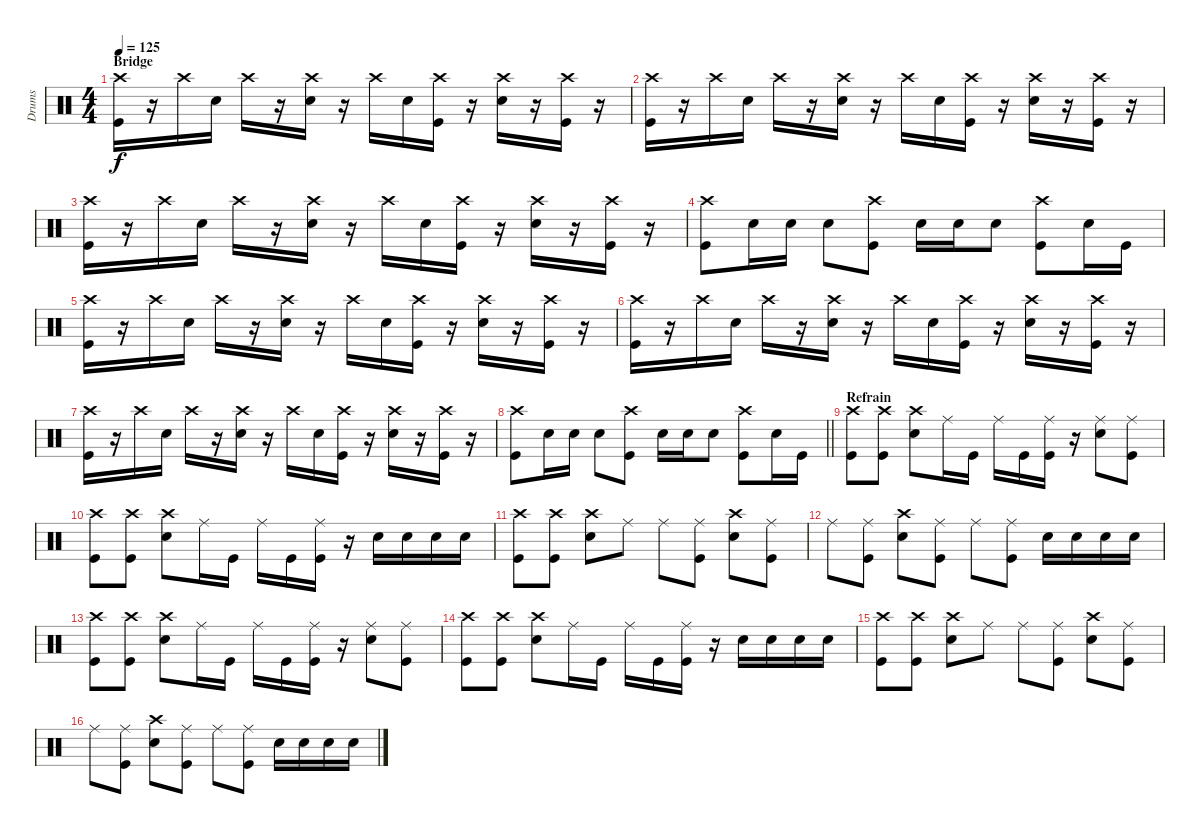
\track ("Drums" "Drums") {instrument percussion}
\staff {score}
\articulation defaults
\ts (4 4)
\section ("" "Bridge")
\tempo 125
\clef neutral
\ks c
("Crash high (hit)" "Kick (hit)").16{dy f} r.16 "Crash high (hit)".16 "Snare (hit) 2".16 "Crash high (hit)".16 r.16 ("Crash high (hit)" "Snare (hit) 2").16 r.16 "Crash high (hit)".16 "Snare (hit) 2".16 ("Crash high (hit)" "Kick (hit)").16 r.16 ("Crash high (hit)" "Snare (hit) 2").16 r.16 ("Crash high (hit)" "Kick (hit)").16 r.16 |
("Crash high (hit)" "Kick (hit)").16 r.16 "Crash high (hit)".16 "Snare (hit) 2".16 "Crash high (hit)".16 r.16 ("Crash high (hit)" "Snare (hit) 2").16 r.16 "Crash high (hit)".16 "Snare (hit) 2".16 ("Crash high (hit)" "Kick (hit)").16 r.16 ("Crash high (hit)" "Snare (hit) 2").16 r.16 ("Crash high (hit)" "Kick (hit)").16 r.16 |
("Crash high (hit)" "Kick (hit)").16 r.16 "Crash high (hit)".16 "Snare (hit) 2".16 "Crash high (hit)".16 r.16 ("Crash high (hit)" "Snare (hit) 2").16 r.16 "Crash high (hit)".16 "Snare (hit) 2".16 ("Crash high (hit)" "Kick (hit)").16 r.16 ("Crash high (hit)" "Snare (hit) 2").16 r.16 ("Crash high (hit)" "Kick (hit)").16 r.16 |
("Kick (hit)" "Crash high (hit)").8 "Snare (hit) 2".16 "Snare (hit) 2".16 "Snare (hit) 2".8 ("Kick (hit)" "Crash high (hit)").8 "Snare (hit) 2".16 "Snare (hit) 2".16 "Snare (hit) 2".8 ("Kick (hit)" "Crash high (hit)").8 "Snare (hit) 2".16 "Kick (hit)".16 |
("Crash high (hit)" "Kick (hit)").16 r.16 "Crash high (hit)".16 "Snare (hit) 2".16 "Crash high (hit)".16 r.16 ("Crash high (hit)" "Snare (hit) 2").16 r.16 "Crash high (hit)".16 "Snare (hit) 2".16 ("Crash high (hit)" "Kick (hit)").16 r.16 ("Crash high (hit)" "Snare (hit) 2").16 r.16 ("Crash high (hit)" "Kick (hit)").16 r.16 |
("Crash high (hit)" "Kick (hit)").16 r.16 "Crash high (hit)".16 "Snare (hit) 2".16 "Crash high (hit)".16 r.16 ("Crash high (hit)" "Snare (hit) 2").16 r.16 "Crash high (hit)".16 "Snare (hit) 2".16 ("Crash high (hit)" "Kick (hit)").16 r.16 ("Crash high (hit)" "Snare (hit) 2").16 r.16 ("Crash high (hit)" "Kick (hit)").16 r.16 |
("Crash high (hit)" "Kick (hit)").16 r.16 "Crash high (hit)".16 "Snare (hit) 2".16 "Crash high (hit)".16 r.16 ("Crash high (hit)" "Snare (hit) 2").16 r.16 "Crash high (hit)".16 "Snare (hit) 2".16 ("Crash high (hit)" "Kick (hit)").16 r.16 ("Crash high (hit)" "Snare (hit) 2").16 r.16 ("Crash high (hit)" "Kick (hit)").16 r.16 |
\barLineRight lightlight
("Kick (hit)" "Crash high (hit)").8 "Snare (hit) 2".16 "Snare (hit) 2".16 "Snare (hit) 2".8 ("Kick (hit)" "Crash high (hit)").8 "Snare (hit) 2".16 "Snare (hit) 2".16 "Snare (hit) 2".8 ("Kick (hit)" "Crash high (hit)").8 "Snare (hit) 2".16 "Kick (hit)".16 |
\section ("" "Refrain")
("Crash high (hit)" "Kick (hit)").8 ("Crash high (hit)" "Kick (hit)").8 ("Snare (hit) 2" "Crash high (hit)").8 "Ride (middle)".16 "Kick (hit)".16 "Ride (middle)".16 "Kick (hit)".16 ("Kick (hit)" "Ride (middle)").16 r.16 ("Snare (hit) 2" "Ride (middle)").8 ("Ride (middle)" "Kick (hit)").8 |
("Crash high (hit)" "Kick (hit)").8 ("Crash high (hit)" "Kick (hit)").8 ("Snare (hit) 2" "Crash high (hit)").8 "Ride (middle)".16 "Kick (hit)".16 "Ride (middle)".16 "Kick (hit)".16 ("Kick (hit)" "Ride (middle)").16 r.16 "Snare (hit) 2".16 "Snare (hit) 2".16 "Snare (hit) 2".16 "Snare (hit) 2".16 |
("Crash high (hit)" "Kick (hit)").8 ("Crash high (hit)" "Kick (hit)").8 ("Snare (hit) 2" "Crash high (hit)").8 "Ride (middle)".8 "Ride (middle)".8 ("Ride (middle)" "Kick (hit)").8 ("Snare (hit) 2" "Crash high (hit)").8 ("Ride (middle)" "Kick (hit)").8 |
"Ride (middle)".8 ("Ride (middle)" "Kick (hit)").8 ("Snare (hit) 2" "Crash high (hit)").8 ("Kick (hit)" "Ride (middle)").8 "Ride (middle)".8 ("Ride (middle)" "Kick (hit)").8 "Snare (hit) 2".16 "Snare (hit) 2".16 "Snare (hit) 2".16 "Snare (hit) 2".16 |
("Crash high (hit)" "Kick (hit)").8 ("Crash high (hit)" "Kick (hit)").8 ("Snare (hit) 2" "Crash high (hit)").8 "Ride (middle)".16 "Kick (hit)".16 "Ride (middle)".16 "Kick (hit)".16 ("Kick (hit)" "Ride (middle)").16 r.16 ("Snare (hit) 2" "Ride (middle)").8 ("Ride (middle)" "Kick (hit)").8 |
("Crash high (hit)" "Kick (hit)").8 ("Crash high (hit)" "Kick (hit)").8 ("Snare (hit) 2" "Crash high (hit)").8 "Ride (middle)".16 "Kick (hit)".16 "Ride (middle)".16 "Kick (hit)".16 ("Kick (hit)" "Ride (middle)").16 r.16 "Snare (hit) 2".16 "Snare (hit) 2".16 "Snare (hit) 2".16 "Snare (hit) 2".16 |
("Crash high (hit)" "Kick (hit)").8 ("Crash high (hit)" "Kick (hit)").8 ("Snare (hit) 2" "Crash high (hit)").8 "Ride (middle)".8 "Ride (middle)".8 ("Ride (middle)" "Kick (hit)").8 ("Snare (hit) 2" "Crash high (hit)").8 ("Ride (middle)" "Kick (hit)").8 |
"Ride (middle)".8 ("Ride (middle)" "Kick (hit)").8 ("Snare (hit) 2" "Crash high (hit)").8 ("Kick (hit)" "Ride (middle)").8 "Ride (middle)".8 ("Ride (middle)" "Kick (hit)").8 "Snare (hit) 2".16 "Snare (hit) 2".16 "Snare (hit) 2".16 "Snare (hit) 2".16
